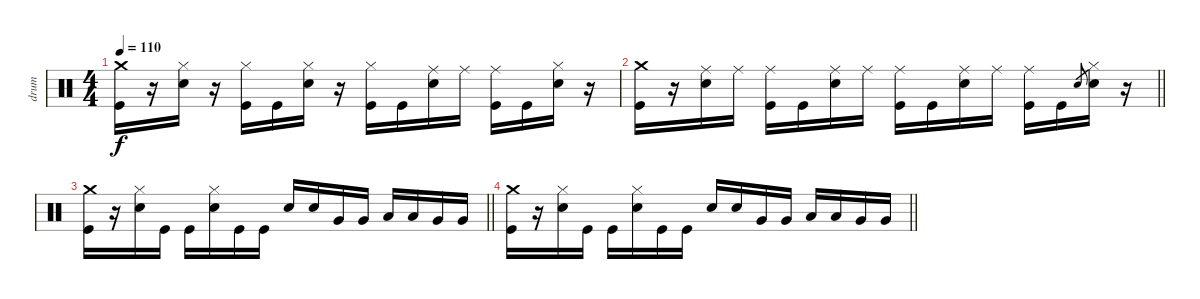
\track ("drum" "drum") {instrument percussion}
\staff {score}
\articulation defaults
\ts (4 4)
\tempo 110
\clef neutral
\ks c
("Crash medium (hit)" "Kick (hit)").16{dy f} r.16 ("Hi-Hat (closed)" "Electric Snare (hit)").16 r.16 ("Hi-Hat (closed)" "Kick (hit)").16 "Kick (hit)".16 ("Hi-Hat (closed)" "Electric Snare (hit)").16 r.16 ("Hi-Hat (closed)" "Kick (hit)").16 "Kick (hit)".16 ("Ride (middle)" "Electric Snare (hit)").16 "Ride (middle)".16 ("Ride (middle)" "Kick (hit)").16 "Kick (hit)".16 ("Hi-Hat (closed)" "Electric Snare (hit)").16 r.16 |
\barLineRight lightlight
("Crash medium (hit)" "Kick (hit)").16 r.16 ("Ride (middle)" "Electric Snare (hit)").16 "Ride (middle)".16 ("Ride (middle)" "Kick (hit)").16 "Kick (hit)".16 ("Ride (middle)" "Electric Snare (hit)").16 "Ride (middle)".16 ("Ride (middle)" "Kick (hit)").16 "Kick (hit)".16 ("Ride (middle)" "Electric Snare (hit)").16 "Ride (middle)".16 ("Ride (middle)" "Kick (hit)").16 "Kick (hit)".16 "Electric Snare (hit)".8{gr} ("Hi-Hat (closed)" "Electric Snare (hit)").16 r.16 |
\barLineRight lightlight
("Crash medium (hit)" "Kick (hit)").16 r.16 ("Hi-Hat (closed)" "Electric Snare (hit)").16 "Kick (hit)".16 "Kick (hit)".16 ("Hi-Hat (closed)" "Electric Snare (hit)").16 "Kick (hit)".16 "Kick (hit)".16 "Electric Snare (hit)".16 "Electric Snare (hit)".16 "Very Low Tom (hit)".16 "Very Low Tom (hit)".16 "Low Tom (hit)".16 "Low Tom (hit)".16 "Very Low Tom (hit)".16 "Very Low Tom (hit)".16 |
\barLineRight lightlight
("Crash medium (hit)" "Kick (hit)").16 r.16 ("Hi-Hat (closed)" "Electric Snare (hit)").16 "Kick (hit)".16 "Kick (hit)".16 ("Hi-Hat (closed)" "Electric Snare (hit)").16 "Kick (hit)".16 "Kick (hit)".16 "Electric Snare (hit)".16 "Electric Snare (hit)".16 "Very Low Tom (hit)".16 "Very Low Tom (hit)".16 "Low Tom (hit)".16 "Low Tom (hit)".16 "Very Low Tom (hit)".16 "Very Low Tom (hit)".16
